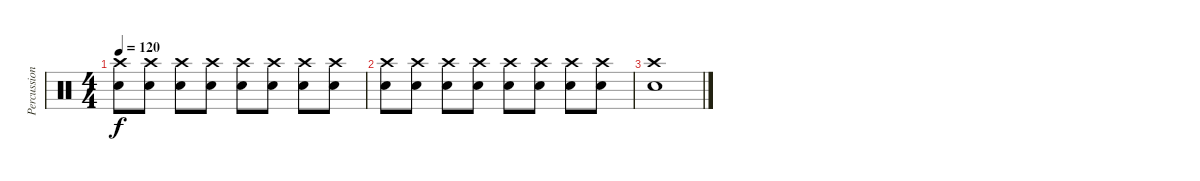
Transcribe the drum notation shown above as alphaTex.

\track ("Percussion" "Percussion") {instrument percussion}
\staff {score}
\articulation defaults
\ts (4 4)
\tempo 120
\clef neutral
\ks c
("Crash high (hit)" "Electric Snare (hit)").8{dy f} ("Crash high (hit)" "Electric Snare (hit)").8 ("Crash high (hit)" "Electric Snare (hit)").8 ("Crash high (hit)" "Electric Snare (hit)").8 ("Crash high (hit)" "Electric Snare (hit)").8 ("Crash high (hit)" "Electric Snare (hit)").8 ("Crash high (hit)" "Electric Snare (hit)").8 ("Crash high (hit)" "Electric Snare (hit)").8 |
("Crash high (hit)" "Electric Snare (hit)").8 ("Crash high (hit)" "Electric Snare (hit)").8 ("Crash high (hit)" "Electric Snare (hit)").8 ("Crash high (hit)" "Electric Snare (hit)").8 ("Crash high (hit)" "Electric Snare (hit)").8 ("Crash high (hit)" "Electric Snare (hit)").8 ("Crash high (hit)" "Electric Snare (hit)").8 ("Crash high (hit)" "Electric Snare (hit)").8 |
("Crash high (hit)" "Electric Snare (hit)").1
